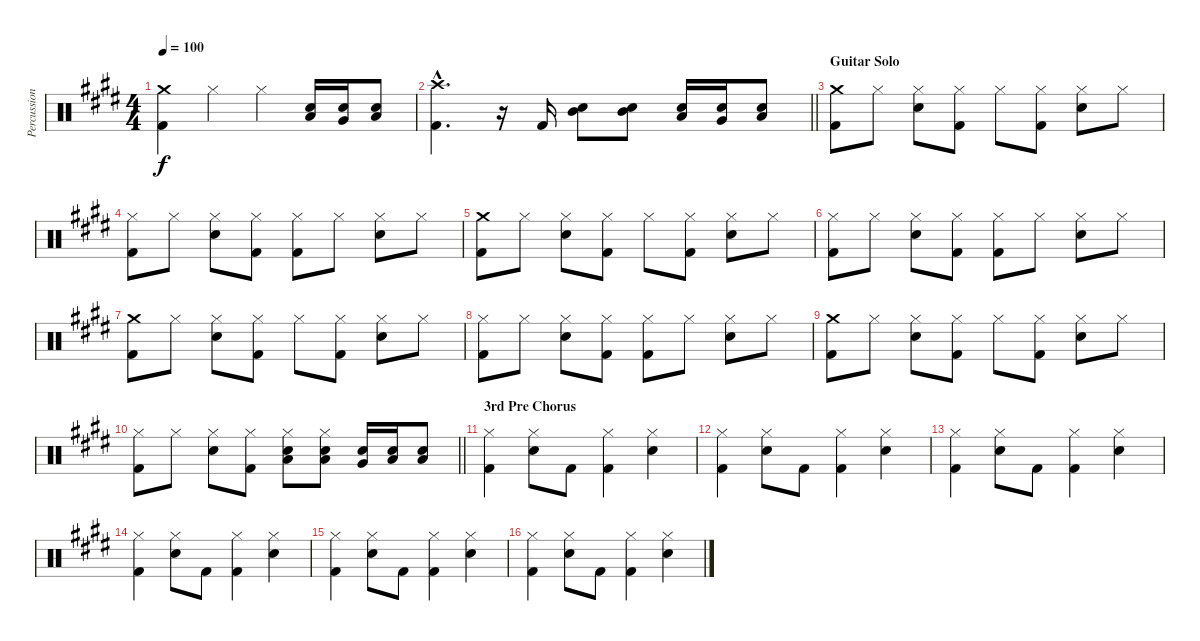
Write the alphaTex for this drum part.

\track ("Percussion" "Percussion") {instrument percussion}
\staff {score}
\articulation defaults
\ts (4 4)
\tempo 100
\clef neutral
\ks c#minor
("Crash medium (hit)" "Kick (hit) 2").4{dy f} "Hi-Hat (closed)".4 "Hi-Hat (closed)".4 ("Snare (hit) 2" "Low Tom (hit)").16 ("Snare (hit) 2" "Very Low Tom (hit)").16 ("Snare (hit) 2" "Low Floor Tom (hit)").8 |
\barLineRight lightlight
("Crash high (hit)"{hac} "Kick (hit) 2"{hac}).4{d} r.16 "Kick (hit) 2".16 ("Snare (hit) 2" "Mid Tom (hit)").8 ("Snare (hit) 2" "Mid Tom (hit)").8 ("Snare (hit) 2" "Low Tom (hit)").16 ("Snare (hit) 2" "Very Low Tom (hit)").16 ("Snare (hit) 2" "Low Floor Tom (hit)").8 |
\section ("" "Guitar Solo")
("Crash medium (hit)" "Kick (hit) 2").8 "Hi-Hat (closed)".8 ("Hi-Hat (closed)" "Snare (hit) 2").8 ("Hi-Hat (closed)" "Kick (hit) 2").8 "Hi-Hat (closed)".8 ("Hi-Hat (closed)" "Kick (hit) 2").8 ("Hi-Hat (closed)" "Snare (hit) 2").8 "Hi-Hat (closed)".8 |
("Hi-Hat (closed)" "Kick (hit) 2").8 "Hi-Hat (closed)".8 ("Hi-Hat (closed)" "Snare (hit) 2").8 ("Hi-Hat (closed)" "Kick (hit) 2").8 ("Hi-Hat (closed)" "Kick (hit) 2").8 "Hi-Hat (closed)".8 ("Hi-Hat (closed)" "Snare (hit) 2").8 "Hi-Hat (closed)".8 |
("Crash medium (hit)" "Kick (hit) 2").8 "Hi-Hat (closed)".8 ("Hi-Hat (closed)" "Snare (hit) 2").8 ("Hi-Hat (closed)" "Kick (hit) 2").8 "Hi-Hat (closed)".8 ("Hi-Hat (closed)" "Kick (hit) 2").8 ("Hi-Hat (closed)" "Snare (hit) 2").8 "Hi-Hat (closed)".8 |
("Hi-Hat (closed)" "Kick (hit) 2").8 "Hi-Hat (closed)".8 ("Hi-Hat (closed)" "Snare (hit) 2").8 ("Hi-Hat (closed)" "Kick (hit) 2").8 ("Hi-Hat (closed)" "Kick (hit) 2").8 "Hi-Hat (closed)".8 ("Hi-Hat (closed)" "Snare (hit) 2").8 "Hi-Hat (closed)".8 |
("Crash medium (hit)" "Kick (hit) 2").8 "Hi-Hat (closed)".8 ("Hi-Hat (closed)" "Snare (hit) 2").8 ("Hi-Hat (closed)" "Kick (hit) 2").8 "Hi-Hat (closed)".8 ("Hi-Hat (closed)" "Kick (hit) 2").8 ("Hi-Hat (closed)" "Snare (hit) 2").8 "Hi-Hat (closed)".8 |
("Hi-Hat (closed)" "Kick (hit) 2").8 "Hi-Hat (closed)".8 ("Hi-Hat (closed)" "Snare (hit) 2").8 ("Hi-Hat (closed)" "Kick (hit) 2").8 ("Hi-Hat (closed)" "Kick (hit) 2").8 "Hi-Hat (closed)".8 ("Hi-Hat (closed)" "Snare (hit) 2").8 "Hi-Hat (closed)".8 |
("Crash medium (hit)" "Kick (hit) 2").8 "Hi-Hat (closed)".8 ("Hi-Hat (closed)" "Snare (hit) 2").8 ("Hi-Hat (closed)" "Kick (hit) 2").8 "Hi-Hat (closed)".8 ("Hi-Hat (closed)" "Kick (hit) 2").8 ("Hi-Hat (closed)" "Snare (hit) 2").8 "Hi-Hat (closed)".8 |
\barLineRight lightlight
("Hi-Hat (closed)" "Kick (hit) 2").8 "Hi-Hat (closed)".8 ("Hi-Hat (closed)" "Snare (hit) 2").8 ("Hi-Hat (closed)" "Kick (hit) 2").8 ("Hi-Hat (closed)" "Snare (hit) 2" "Low Tom (hit)").8 ("Hi-Hat (closed)" "Snare (hit) 2" "Low Tom (hit)").8 ("Snare (hit) 2" "Very Low Tom (hit)").16 ("Snare (hit) 2" "Low Floor Tom (hit)").16 ("Snare (hit) 2" "Low Floor Tom (hit)").8 |
\section ("" "3rd Pre Chorus")
("Hi-Hat (closed)" "Kick (hit) 2").4 ("Hi-Hat (closed)" "Snare (hit) 2").8 "Kick (hit) 2".8 ("Hi-Hat (closed)" "Kick (hit) 2").4 ("Hi-Hat (closed)" "Snare (hit) 2").4 |
("Hi-Hat (closed)" "Kick (hit) 2").4 ("Hi-Hat (closed)" "Snare (hit) 2").8 "Kick (hit) 2".8 ("Hi-Hat (closed)" "Kick (hit) 2").4 ("Hi-Hat (closed)" "Snare (hit) 2").4 |
("Hi-Hat (closed)" "Kick (hit) 2").4 ("Hi-Hat (closed)" "Snare (hit) 2").8 "Kick (hit) 2".8 ("Hi-Hat (closed)" "Kick (hit) 2").4 ("Hi-Hat (closed)" "Snare (hit) 2").4 |
("Hi-Hat (closed)" "Kick (hit) 2").4 ("Hi-Hat (closed)" "Snare (hit) 2").8 "Kick (hit) 2".8 ("Hi-Hat (closed)" "Kick (hit) 2").4 ("Hi-Hat (closed)" "Snare (hit) 2").4 |
("Hi-Hat (closed)" "Kick (hit) 2").4 ("Hi-Hat (closed)" "Snare (hit) 2").8 "Kick (hit) 2".8 ("Hi-Hat (closed)" "Kick (hit) 2").4 ("Hi-Hat (closed)" "Snare (hit) 2").4 |
("Hi-Hat (closed)" "Kick (hit) 2").4 ("Hi-Hat (closed)" "Snare (hit) 2").8 "Kick (hit) 2".8 ("Hi-Hat (closed)" "Kick (hit) 2").4 ("Hi-Hat (closed)" "Snare (hit) 2").4
